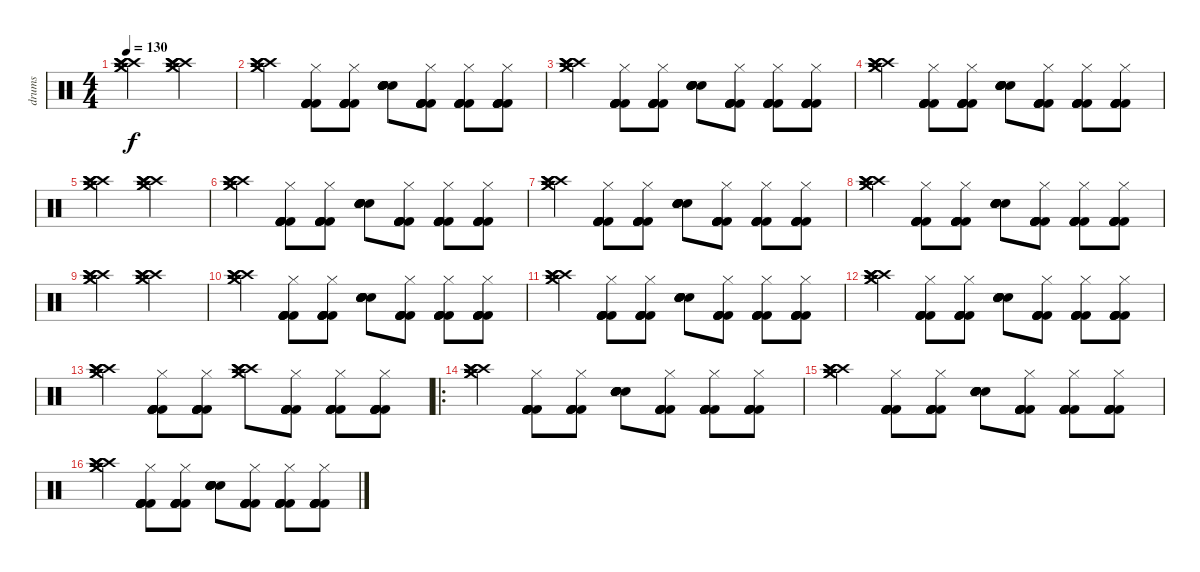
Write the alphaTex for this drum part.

\track ("drums" "drums") {instrument percussion}
\staff {score}
\articulation defaults
\ts (4 4)
\tempo 130
\clef neutral
\ks c
("Crash medium (hit)" "Crash medium (hit)" "Crash high (hit)" "Crash high (hit)" "Crash high (hit)" "Crash high (hit)").2{dy f} ("Crash medium (hit)" "Crash medium (hit)" "Crash high (hit)" "Crash high (hit)" "Crash high (hit)" "Crash high (hit)").2 |
("Crash medium (hit)" "Crash medium (hit)" "Crash high (hit)" "Crash high (hit)" "Crash high (hit)" "Crash high (hit)").4 ("Kick (hit) 2" "Kick (hit) 2" "Kick (hit) 2" "Hi-Hat (closed)" "Kick (hit) 2" "Kick (hit) 2").8 ("Kick (hit) 2" "Kick (hit) 2" "Kick (hit) 2" "Hi-Hat (closed)" "Kick (hit) 2" "Kick (hit) 2").8 ("Snare (hit) 2" "Snare (hit) 2" "Snare (hit) 2" "Electric Snare (hit)" "Electric Snare (hit)" "Electric Snare (hit)").8 ("Kick (hit) 2" "Kick (hit) 2" "Kick (hit) 2" "Hi-Hat (closed)" "Kick (hit) 2" "Kick (hit) 2").8 ("Kick (hit) 2" "Kick (hit) 2" "Kick (hit) 2" "Hi-Hat (closed)" "Kick (hit) 2" "Kick (hit) 2").8 ("Kick (hit) 2" "Kick (hit) 2" "Kick (hit) 2" "Hi-Hat (closed)" "Kick (hit) 2" "Kick (hit) 2").8 |
("Crash medium (hit)" "Crash medium (hit)" "Crash high (hit)" "Crash high (hit)" "Crash high (hit)" "Crash high (hit)").4 ("Kick (hit) 2" "Kick (hit) 2" "Kick (hit) 2" "Hi-Hat (closed)" "Kick (hit) 2" "Kick (hit) 2").8 ("Kick (hit) 2" "Kick (hit) 2" "Kick (hit) 2" "Hi-Hat (closed)" "Kick (hit) 2" "Kick (hit) 2").8 ("Snare (hit) 2" "Snare (hit) 2" "Snare (hit) 2" "Electric Snare (hit)" "Electric Snare (hit)" "Electric Snare (hit)").8 ("Kick (hit) 2" "Kick (hit) 2" "Kick (hit) 2" "Hi-Hat (closed)" "Kick (hit) 2" "Kick (hit) 2").8 ("Kick (hit) 2" "Kick (hit) 2" "Kick (hit) 2" "Hi-Hat (closed)" "Kick (hit) 2" "Kick (hit) 2").8 ("Kick (hit) 2" "Kick (hit) 2" "Kick (hit) 2" "Hi-Hat (closed)" "Kick (hit) 2" "Kick (hit) 2").8 |
("Crash medium (hit)" "Crash medium (hit)" "Crash high (hit)" "Crash high (hit)" "Crash high (hit)" "Crash high (hit)").4 ("Kick (hit) 2" "Kick (hit) 2" "Kick (hit) 2" "Hi-Hat (closed)" "Kick (hit) 2" "Kick (hit) 2").8 ("Kick (hit) 2" "Kick (hit) 2" "Kick (hit) 2" "Hi-Hat (closed)" "Kick (hit) 2" "Kick (hit) 2").8 ("Snare (hit) 2" "Snare (hit) 2" "Snare (hit) 2" "Electric Snare (hit)" "Electric Snare (hit)" "Electric Snare (hit)").8 ("Kick (hit) 2" "Kick (hit) 2" "Kick (hit) 2" "Hi-Hat (closed)" "Kick (hit) 2" "Kick (hit) 2").8 ("Kick (hit) 2" "Kick (hit) 2" "Kick (hit) 2" "Hi-Hat (closed)" "Kick (hit) 2" "Kick (hit) 2").8 ("Kick (hit) 2" "Kick (hit) 2" "Kick (hit) 2" "Hi-Hat (closed)" "Kick (hit) 2" "Kick (hit) 2").8 |
("Crash medium (hit)" "Crash medium (hit)" "Crash high (hit)" "Crash high (hit)" "Crash high (hit)" "Crash high (hit)").2 ("Crash medium (hit)" "Crash medium (hit)" "Crash high (hit)" "Crash high (hit)" "Crash high (hit)" "Crash high (hit)").2 |
("Crash medium (hit)" "Crash medium (hit)" "Crash high (hit)" "Crash high (hit)" "Crash high (hit)" "Crash high (hit)").4 ("Kick (hit) 2" "Kick (hit) 2" "Kick (hit) 2" "Hi-Hat (closed)" "Kick (hit) 2" "Kick (hit) 2").8 ("Kick (hit) 2" "Kick (hit) 2" "Kick (hit) 2" "Hi-Hat (closed)" "Kick (hit) 2" "Kick (hit) 2").8 ("Snare (hit) 2" "Snare (hit) 2" "Snare (hit) 2" "Electric Snare (hit)" "Electric Snare (hit)" "Electric Snare (hit)").8 ("Kick (hit) 2" "Kick (hit) 2" "Kick (hit) 2" "Hi-Hat (closed)" "Kick (hit) 2" "Kick (hit) 2").8 ("Kick (hit) 2" "Kick (hit) 2" "Kick (hit) 2" "Hi-Hat (closed)" "Kick (hit) 2" "Kick (hit) 2").8 ("Kick (hit) 2" "Kick (hit) 2" "Kick (hit) 2" "Hi-Hat (closed)" "Kick (hit) 2" "Kick (hit) 2").8 |
("Crash medium (hit)" "Crash medium (hit)" "Crash high (hit)" "Crash high (hit)" "Crash high (hit)" "Crash high (hit)").4 ("Kick (hit) 2" "Kick (hit) 2" "Kick (hit) 2" "Hi-Hat (closed)" "Kick (hit) 2" "Kick (hit) 2").8 ("Kick (hit) 2" "Kick (hit) 2" "Kick (hit) 2" "Hi-Hat (closed)" "Kick (hit) 2" "Kick (hit) 2").8 ("Snare (hit) 2" "Snare (hit) 2" "Snare (hit) 2" "Electric Snare (hit)" "Electric Snare (hit)" "Electric Snare (hit)").8 ("Kick (hit) 2" "Kick (hit) 2" "Kick (hit) 2" "Hi-Hat (closed)" "Kick (hit) 2" "Kick (hit) 2").8 ("Kick (hit) 2" "Kick (hit) 2" "Kick (hit) 2" "Hi-Hat (closed)" "Kick (hit) 2" "Kick (hit) 2").8 ("Kick (hit) 2" "Kick (hit) 2" "Kick (hit) 2" "Hi-Hat (closed)" "Kick (hit) 2" "Kick (hit) 2").8 |
("Crash medium (hit)" "Crash medium (hit)" "Crash high (hit)" "Crash high (hit)" "Crash high (hit)" "Crash high (hit)").4 ("Kick (hit) 2" "Kick (hit) 2" "Kick (hit) 2" "Hi-Hat (closed)" "Kick (hit) 2" "Kick (hit) 2").8 ("Kick (hit) 2" "Kick (hit) 2" "Kick (hit) 2" "Hi-Hat (closed)" "Kick (hit) 2" "Kick (hit) 2").8 ("Snare (hit) 2" "Snare (hit) 2" "Snare (hit) 2" "Electric Snare (hit)" "Electric Snare (hit)" "Electric Snare (hit)").8 ("Kick (hit) 2" "Kick (hit) 2" "Kick (hit) 2" "Hi-Hat (closed)" "Kick (hit) 2" "Kick (hit) 2").8 ("Kick (hit) 2" "Kick (hit) 2" "Kick (hit) 2" "Hi-Hat (closed)" "Kick (hit) 2" "Kick (hit) 2").8 ("Kick (hit) 2" "Kick (hit) 2" "Kick (hit) 2" "Hi-Hat (closed)" "Kick (hit) 2" "Kick (hit) 2").8 |
("Crash medium (hit)" "Crash medium (hit)" "Crash high (hit)" "Crash high (hit)" "Crash high (hit)" "Crash high (hit)").2 ("Crash medium (hit)" "Crash medium (hit)" "Crash high (hit)" "Crash high (hit)" "Crash high (hit)" "Crash high (hit)").2 |
("Crash medium (hit)" "Crash medium (hit)" "Crash high (hit)" "Crash high (hit)" "Crash high (hit)" "Crash high (hit)").4 ("Kick (hit) 2" "Kick (hit) 2" "Kick (hit) 2" "Hi-Hat (closed)" "Kick (hit) 2" "Kick (hit) 2").8 ("Kick (hit) 2" "Kick (hit) 2" "Kick (hit) 2" "Hi-Hat (closed)" "Kick (hit) 2" "Kick (hit) 2").8 ("Snare (hit) 2" "Snare (hit) 2" "Snare (hit) 2" "Electric Snare (hit)" "Electric Snare (hit)" "Electric Snare (hit)").8 ("Kick (hit) 2" "Kick (hit) 2" "Kick (hit) 2" "Hi-Hat (closed)" "Kick (hit) 2" "Kick (hit) 2").8 ("Kick (hit) 2" "Kick (hit) 2" "Kick (hit) 2" "Hi-Hat (closed)" "Kick (hit) 2" "Kick (hit) 2").8 ("Kick (hit) 2" "Kick (hit) 2" "Kick (hit) 2" "Hi-Hat (closed)" "Kick (hit) 2" "Kick (hit) 2").8 |
("Crash medium (hit)" "Crash medium (hit)" "Crash high (hit)" "Crash high (hit)" "Crash high (hit)" "Crash high (hit)").4 ("Kick (hit) 2" "Kick (hit) 2" "Kick (hit) 2" "Hi-Hat (closed)" "Kick (hit) 2" "Kick (hit) 2").8 ("Kick (hit) 2" "Kick (hit) 2" "Kick (hit) 2" "Hi-Hat (closed)" "Kick (hit) 2" "Kick (hit) 2").8 ("Snare (hit) 2" "Snare (hit) 2" "Snare (hit) 2" "Electric Snare (hit)" "Electric Snare (hit)" "Electric Snare (hit)").8 ("Kick (hit) 2" "Kick (hit) 2" "Kick (hit) 2" "Hi-Hat (closed)" "Kick (hit) 2" "Kick (hit) 2").8 ("Kick (hit) 2" "Kick (hit) 2" "Kick (hit) 2" "Hi-Hat (closed)" "Kick (hit) 2" "Kick (hit) 2").8 ("Kick (hit) 2" "Kick (hit) 2" "Kick (hit) 2" "Hi-Hat (closed)" "Kick (hit) 2" "Kick (hit) 2").8 |
("Crash medium (hit)" "Crash medium (hit)" "Crash high (hit)" "Crash high (hit)" "Crash high (hit)" "Crash high (hit)").4 ("Kick (hit) 2" "Kick (hit) 2" "Kick (hit) 2" "Hi-Hat (closed)" "Kick (hit) 2" "Kick (hit) 2").8 ("Kick (hit) 2" "Kick (hit) 2" "Kick (hit) 2" "Hi-Hat (closed)" "Kick (hit) 2" "Kick (hit) 2").8 ("Snare (hit) 2" "Snare (hit) 2" "Snare (hit) 2" "Electric Snare (hit)" "Electric Snare (hit)" "Electric Snare (hit)").8 ("Kick (hit) 2" "Kick (hit) 2" "Kick (hit) 2" "Hi-Hat (closed)" "Kick (hit) 2" "Kick (hit) 2").8 ("Kick (hit) 2" "Kick (hit) 2" "Kick (hit) 2" "Hi-Hat (closed)" "Kick (hit) 2" "Kick (hit) 2").8 ("Kick (hit) 2" "Kick (hit) 2" "Kick (hit) 2" "Hi-Hat (closed)" "Kick (hit) 2" "Kick (hit) 2").8 |
("Crash medium (hit)" "Crash medium (hit)" "Crash high (hit)" "Crash high (hit)" "Crash high (hit)" "Crash high (hit)").4 ("Kick (hit) 2" "Kick (hit) 2" "Kick (hit) 2" "Hi-Hat (closed)" "Kick (hit) 2" "Kick (hit) 2").8 ("Kick (hit) 2" "Kick (hit) 2" "Kick (hit) 2" "Hi-Hat (closed)" "Kick (hit) 2" "Kick (hit) 2").8 ("Crash medium (hit)" "Crash medium (hit)" "Crash high (hit)" "Crash high (hit)" "Crash high (hit)" "Crash high (hit)").8 ("Kick (hit) 2" "Kick (hit) 2" "Kick (hit) 2" "Hi-Hat (closed)" "Kick (hit) 2" "Kick (hit) 2").8 ("Kick (hit) 2" "Kick (hit) 2" "Kick (hit) 2" "Hi-Hat (closed)" "Kick (hit) 2" "Kick (hit) 2").8 ("Kick (hit) 2" "Kick (hit) 2" "Kick (hit) 2" "Hi-Hat (closed)" "Kick (hit) 2" "Kick (hit) 2").8 |
\ro
("Crash medium (hit)" "Crash medium (hit)" "Crash high (hit)" "Crash high (hit)" "Crash high (hit)" "Crash high (hit)").4 ("Kick (hit) 2" "Kick (hit) 2" "Kick (hit) 2" "Hi-Hat (closed)" "Kick (hit) 2" "Kick (hit) 2").8 ("Kick (hit) 2" "Kick (hit) 2" "Kick (hit) 2" "Hi-Hat (closed)" "Kick (hit) 2" "Kick (hit) 2").8 ("Snare (hit) 2" "Snare (hit) 2" "Snare (hit) 2" "Electric Snare (hit)" "Electric Snare (hit)" "Electric Snare (hit)").8 ("Kick (hit) 2" "Kick (hit) 2" "Kick (hit) 2" "Hi-Hat (closed)" "Kick (hit) 2" "Kick (hit) 2").8 ("Kick (hit) 2" "Kick (hit) 2" "Kick (hit) 2" "Hi-Hat (closed)" "Kick (hit) 2" "Kick (hit) 2").8 ("Kick (hit) 2" "Kick (hit) 2" "Kick (hit) 2" "Hi-Hat (closed)" "Kick (hit) 2" "Kick (hit) 2").8 |
("Crash medium (hit)" "Crash medium (hit)" "Crash high (hit)" "Crash high (hit)" "Crash high (hit)" "Crash high (hit)").4 ("Kick (hit) 2" "Kick (hit) 2" "Kick (hit) 2" "Hi-Hat (closed)" "Kick (hit) 2" "Kick (hit) 2").8 ("Kick (hit) 2" "Kick (hit) 2" "Kick (hit) 2" "Hi-Hat (closed)" "Kick (hit) 2" "Kick (hit) 2").8 ("Snare (hit) 2" "Snare (hit) 2" "Snare (hit) 2" "Electric Snare (hit)" "Electric Snare (hit)" "Electric Snare (hit)").8 ("Kick (hit) 2" "Kick (hit) 2" "Kick (hit) 2" "Hi-Hat (closed)" "Kick (hit) 2" "Kick (hit) 2").8 ("Kick (hit) 2" "Kick (hit) 2" "Kick (hit) 2" "Hi-Hat (closed)" "Kick (hit) 2" "Kick (hit) 2").8 ("Kick (hit) 2" "Kick (hit) 2" "Kick (hit) 2" "Hi-Hat (closed)" "Kick (hit) 2" "Kick (hit) 2").8 |
("Crash medium (hit)" "Crash medium (hit)" "Crash high (hit)" "Crash high (hit)" "Crash high (hit)" "Crash high (hit)").4 ("Kick (hit) 2" "Kick (hit) 2" "Kick (hit) 2" "Hi-Hat (closed)" "Kick (hit) 2" "Kick (hit) 2").8 ("Kick (hit) 2" "Kick (hit) 2" "Kick (hit) 2" "Hi-Hat (closed)" "Kick (hit) 2" "Kick (hit) 2").8 ("Snare (hit) 2" "Snare (hit) 2" "Snare (hit) 2" "Electric Snare (hit)" "Electric Snare (hit)" "Electric Snare (hit)").8 ("Kick (hit) 2" "Kick (hit) 2" "Kick (hit) 2" "Hi-Hat (closed)" "Kick (hit) 2" "Kick (hit) 2").8 ("Kick (hit) 2" "Kick (hit) 2" "Kick (hit) 2" "Hi-Hat (closed)" "Kick (hit) 2" "Kick (hit) 2").8 ("Kick (hit) 2" "Kick (hit) 2" "Kick (hit) 2" "Hi-Hat (closed)" "Kick (hit) 2" "Kick (hit) 2").8
